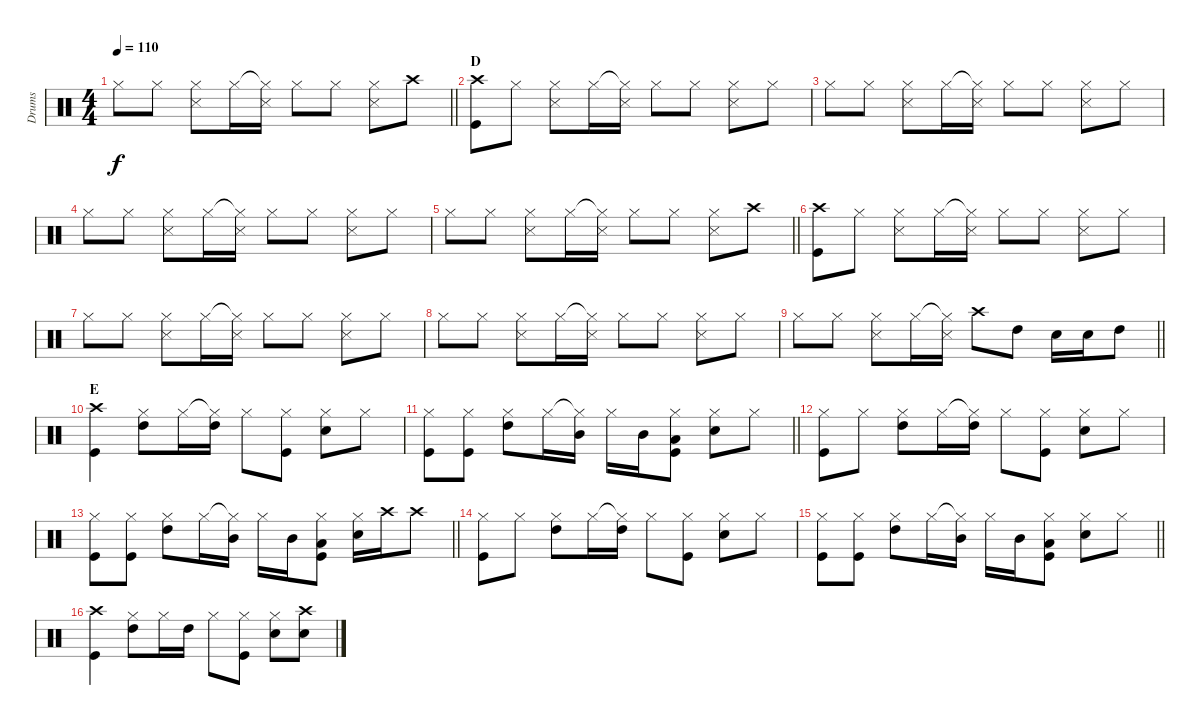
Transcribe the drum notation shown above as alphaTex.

\track ("Drums" "Drums") {instrument percussion}
\staff {score}
\articulation defaults
\ts (4 4)
\tempo 110
\clef neutral
\barLineRight lightlight
\ks c "Hi-Hat (closed)".8{dy f} "Hi-Hat (closed)".8
("Hi-Hat (closed)" "Snare (side stick) 3").8 "Hi-Hat (closed)".16 ("Hi-Hat (closed)"{t} "Snare (side stick) 3").16 "Hi-Hat (closed)".8 "Hi-Hat (closed)".8 ("Hi-Hat (closed)" "Snare (side stick) 3").8 "Crash high (hit)".8 |
\section ("" "D")
("Crash high (hit)" "Kick (hit)").8 "Hi-Hat (closed)".8 ("Hi-Hat (closed)" "Snare (side stick) 3").8 "Hi-Hat (closed)".16 ("Hi-Hat (closed)"{t} "Snare (side stick) 3").16 "Hi-Hat (closed)".8 "Hi-Hat (closed)".8 ("Hi-Hat (closed)" "Snare (side stick) 3").8 "Hi-Hat (closed)".8 |
"Hi-Hat (closed)".8 "Hi-Hat (closed)".8 ("Hi-Hat (closed)" "Snare (side stick) 3").8 "Hi-Hat (closed)".16 ("Hi-Hat (closed)"{t} "Snare (side stick) 3").16 "Hi-Hat (closed)".8 "Hi-Hat (closed)".8 ("Hi-Hat (closed)" "Snare (side stick) 3").8 "Hi-Hat (closed)".8 |
"Hi-Hat (closed)".8 "Hi-Hat (closed)".8 ("Hi-Hat (closed)" "Snare (side stick) 3").8 "Hi-Hat (closed)".16 ("Hi-Hat (closed)"{t} "Snare (side stick) 3").16 "Hi-Hat (closed)".8 "Hi-Hat (closed)".8 ("Hi-Hat (closed)" "Snare (side stick) 3").8 "Hi-Hat (closed)".8 |
\barLineRight lightlight "Hi-Hat (closed)".8 "Hi-Hat (closed)".8
("Hi-Hat (closed)" "Snare (side stick) 3").8 "Hi-Hat (closed)".16 ("Hi-Hat (closed)"{t} "Snare (side stick) 3").16 "Hi-Hat (closed)".8 "Hi-Hat (closed)".8 ("Hi-Hat (closed)" "Snare (side stick) 3").8 "Crash high (hit)".8 |
("Crash high (hit)" "Kick (hit)").8 "Hi-Hat (closed)".8 ("Hi-Hat (closed)" "Snare (side stick) 3").8 "Hi-Hat (closed)".16 ("Hi-Hat (closed)"{t} "Snare (side stick) 3").16 "Hi-Hat (closed)".8 "Hi-Hat (closed)".8 ("Hi-Hat (closed)" "Snare (side stick) 3").8 "Hi-Hat (closed)".8 |
"Hi-Hat (closed)".8 "Hi-Hat (closed)".8 ("Hi-Hat (closed)" "Snare (side stick) 3").8 "Hi-Hat (closed)".16 ("Hi-Hat (closed)"{t} "Snare (side stick) 3").16 "Hi-Hat (closed)".8 "Hi-Hat (closed)".8 ("Hi-Hat (closed)" "Snare (side stick) 3").8 "Hi-Hat (closed)".8 |
"Hi-Hat (closed)".8 "Hi-Hat (closed)".8 ("Hi-Hat (closed)" "Snare (side stick) 3").8 "Hi-Hat (closed)".16 ("Hi-Hat (closed)"{t} "Snare (side stick) 3").16 "Hi-Hat (closed)".8 "Hi-Hat (closed)".8 ("Hi-Hat (closed)" "Snare (side stick) 3").8 "Hi-Hat (closed)".8 |
\barLineRight lightlight "Hi-Hat (closed)".8 "Hi-Hat (closed)".8
("Hi-Hat (closed)" "Snare (side stick) 3").8 "Hi-Hat (closed)".16 ("Hi-Hat (closed)"{t} "Snare (side stick) 3").16 "Crash high (hit)".8 "High Tom (hit)".8 "Snare (hit) 2".16 "Snare (hit) 2".16 "High Tom (hit)".8 |
\section ("" "E")
("Crash high (hit)" "Kick (hit)").4 ("Hi-Hat (closed)" "High Tom (hit)").8 "Hi-Hat (closed)".16 ("Hi-Hat (closed)"{t} "High Tom (hit)").16 "Hi-Hat (closed)".8 ("Hi-Hat (closed)" "Kick (hit)").8 ("Hi-Hat (closed)" "Snare (hit) 2").8 "Hi-Hat (closed)".8 |
\barLineRight lightlight
("Hi-Hat (closed)" "Kick (hit)").8 ("Hi-Hat (closed)" "Kick (hit)").8 ("Hi-Hat (closed)" "High Tom (hit)").8 "Hi-Hat (closed)".16 ("Hi-Hat (closed)"{t} "Mid Tom (hit)").16 "Hi-Hat (closed)".16 "Mid Tom (hit)".16 ("Hi-Hat (closed)" "Low Floor Tom (hit)" "Kick (hit)").8 ("Hi-Hat (closed)" "Snare (hit) 2").8 "Hi-Hat (closed)".8 |
("Hi-Hat (closed)" "Kick (hit)").8 "Hi-Hat (closed)".8 ("Hi-Hat (closed)" "High Tom (hit)").8 "Hi-Hat (closed)".16 ("Hi-Hat (closed)"{t} "High Tom (hit)").16 "Hi-Hat (closed)".8 ("Hi-Hat (closed)" "Kick (hit)").8 ("Hi-Hat (closed)" "Snare (hit) 2").8 "Hi-Hat (closed)".8 |
\barLineRight lightlight
("Hi-Hat (closed)" "Kick (hit)").8 ("Hi-Hat (closed)" "Kick (hit)").8 ("Hi-Hat (closed)" "High Tom (hit)").8 "Hi-Hat (closed)".16 ("Hi-Hat (closed)"{t} "Mid Tom (hit)").16 "Hi-Hat (closed)".16 "Mid Tom (hit)".16 ("Hi-Hat (closed)" "Low Floor Tom (hit)" "Kick (hit)").8 ("Hi-Hat (closed)" "Snare (hit) 2").16 "Crash high (hit)".16 "Crash high (hit)".8 |
("Hi-Hat (closed)" "Kick (hit)").8 "Hi-Hat (closed)".8 ("Hi-Hat (closed)" "High Tom (hit)").8 "Hi-Hat (closed)".16 ("Hi-Hat (closed)"{t} "High Tom (hit)").16 "Hi-Hat (closed)".8 ("Hi-Hat (closed)" "Kick (hit)").8 ("Hi-Hat (closed)" "Snare (hit) 2").8 "Hi-Hat (closed)".8 |
\barLineRight lightlight
("Hi-Hat (closed)" "Kick (hit)").8 ("Hi-Hat (closed)" "Kick (hit)").8 ("Hi-Hat (closed)" "High Tom (hit)").8 "Hi-Hat (closed)".16 ("Hi-Hat (closed)"{t} "Mid Tom (hit)").16 "Hi-Hat (closed)".16 "Mid Tom (hit)".16 ("Hi-Hat (closed)" "Low Floor Tom (hit)" "Kick (hit)").8 ("Hi-Hat (closed)" "Snare (hit) 2").8 "Hi-Hat (closed)".8 |
("Crash high (hit)" "Kick (hit)").4 ("Hi-Hat (closed)" "High Tom (hit)").8 "Hi-Hat (closed)".16 "High Tom (hit)".16 "Hi-Hat (closed)".8 ("Hi-Hat (closed)" "Kick (hit)").8 ("Hi-Hat (closed)" "Snare (hit) 2").8 ("Crash high (hit)" "Snare (hit) 2").8
